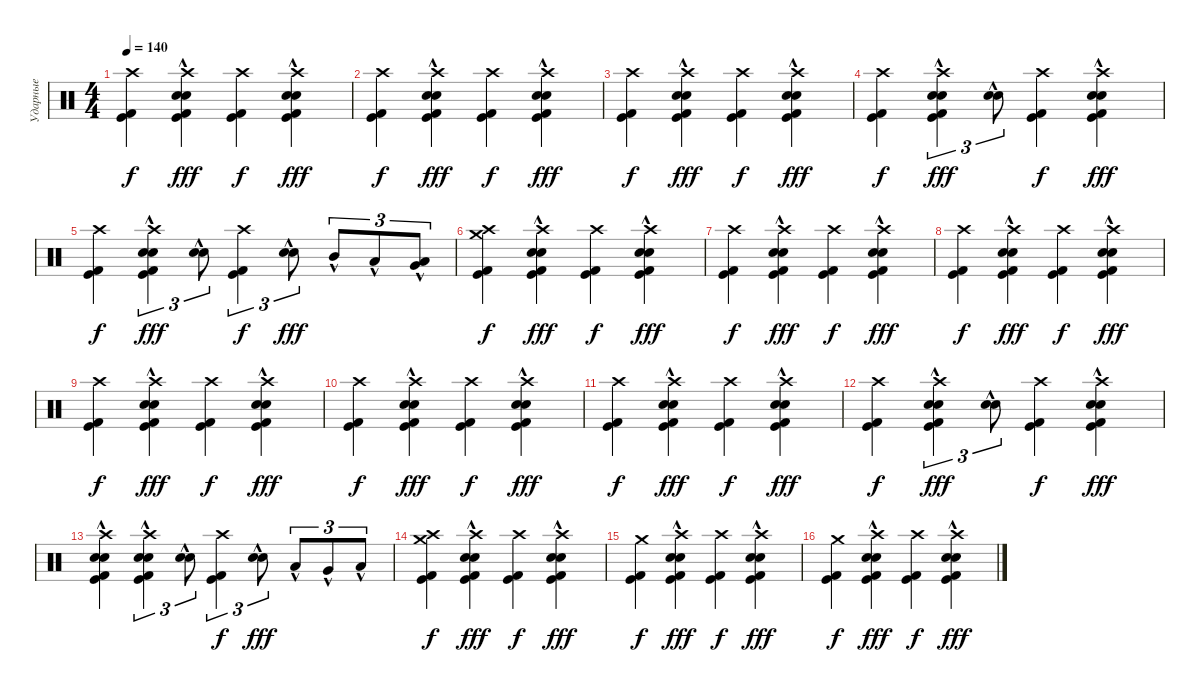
\track ("Ударные" "Ударные") {instrument percussion}
\staff {score}
\articulation defaults
\ts (4 4)
\tempo 140
\clef neutral
\ks c
("Crash high (hit)" "Kick (hit)" "Kick (hit) 2").4{dy f} ("Crash high (hit)" "Kick (hit)" "Kick (hit) 2" "Snare (hit) 2"{hac} "Electric Snare (hit)"{hac}).4{dy fff} ("Crash high (hit)" "Kick (hit)" "Kick (hit) 2").4{dy f} ("Crash high (hit)" "Kick (hit)" "Kick (hit) 2" "Snare (hit) 2"{hac} "Electric Snare (hit)"{hac}).4{dy fff} |
("Crash high (hit)" "Kick (hit)" "Kick (hit) 2").4{dy f} ("Crash high (hit)" "Kick (hit)" "Kick (hit) 2" "Snare (hit) 2"{hac} "Electric Snare (hit)"{hac}).4{dy fff} ("Crash high (hit)" "Kick (hit)" "Kick (hit) 2").4{dy f} ("Crash high (hit)" "Kick (hit)" "Kick (hit) 2" "Snare (hit) 2"{hac} "Electric Snare (hit)"{hac}).4{dy fff} |
("Crash high (hit)" "Kick (hit)" "Kick (hit) 2").4{dy f} ("Crash high (hit)" "Kick (hit)" "Kick (hit) 2" "Snare (hit) 2"{hac} "Electric Snare (hit)"{hac}).4{dy fff} ("Crash high (hit)" "Kick (hit)" "Kick (hit) 2").4{dy f} ("Crash high (hit)" "Kick (hit)" "Kick (hit) 2" "Snare (hit) 2"{hac} "Electric Snare (hit)"{hac}).4{dy fff} |
("Crash high (hit)" "Kick (hit)" "Kick (hit) 2").4{dy f} ("Crash high (hit)" "Kick (hit)" "Kick (hit) 2" "Snare (hit) 2"{hac} "Electric Snare (hit)"{hac}).4{tu (3 2) dy fff} ("Snare (hit) 2"{hac} "Electric Snare (hit)"{hac}).8{tu (3 2)} ("Crash high (hit)" "Kick (hit)" "Kick (hit) 2").4{dy f} ("Crash high (hit)" "Kick (hit)" "Kick (hit) 2" "Snare (hit) 2"{hac} "Electric Snare (hit)"{hac}).4{dy fff} |
("Crash high (hit)" "Kick (hit)" "Kick (hit) 2").4{dy f} ("Crash high (hit)" "Kick (hit)" "Kick (hit) 2" "Snare (hit) 2"{hac} "Electric Snare (hit)"{hac}).4{tu (3 2) dy fff} ("Snare (hit) 2"{hac} "Electric Snare (hit)"{hac}).8{tu (3 2)} ("Crash high (hit)" "Kick (hit)" "Kick (hit) 2").4{tu (3 2) dy f} ("Snare (hit) 2"{hac} "Electric Snare (hit)"{hac}).8{tu (3 2) dy fff} "Mid Tom (hit)"{hac}.8{tu (3 2)} "Low Tom (hit)"{hac}.8{tu (3 2)} ("Very Low Tom (hit)"{hac} "Low Floor Tom (hit)"{hac}).8{tu (3 2)} |
("Crash high (hit)" "Kick (hit)" "Kick (hit) 2" "Crash medium (hit)").4{dy f} ("Crash high (hit)" "Kick (hit)" "Kick (hit) 2" "Snare (hit) 2"{hac} "Electric Snare (hit)"{hac}).4{dy fff} ("Crash high (hit)" "Kick (hit)" "Kick (hit) 2").4{dy f} ("Crash high (hit)" "Kick (hit)" "Kick (hit) 2" "Snare (hit) 2"{hac} "Electric Snare (hit)"{hac}).4{dy fff} |
("Crash high (hit)" "Kick (hit)" "Kick (hit) 2").4{dy f} ("Crash high (hit)" "Kick (hit)" "Kick (hit) 2" "Snare (hit) 2"{hac} "Electric Snare (hit)"{hac}).4{dy fff} ("Crash high (hit)" "Kick (hit)" "Kick (hit) 2").4{dy f} ("Crash high (hit)" "Kick (hit)" "Kick (hit) 2" "Snare (hit) 2"{hac} "Electric Snare (hit)"{hac}).4{dy fff} |
("Crash high (hit)" "Kick (hit)" "Kick (hit) 2").4{dy f} ("Crash high (hit)" "Kick (hit)" "Kick (hit) 2" "Snare (hit) 2"{hac} "Electric Snare (hit)"{hac}).4{dy fff} ("Crash high (hit)" "Kick (hit)" "Kick (hit) 2").4{dy f} ("Crash high (hit)" "Kick (hit)" "Kick (hit) 2" "Snare (hit) 2"{hac} "Electric Snare (hit)"{hac}).4{dy fff} |
("Crash high (hit)" "Kick (hit)" "Kick (hit) 2").4{dy f} ("Crash high (hit)" "Kick (hit)" "Kick (hit) 2" "Snare (hit) 2"{hac} "Electric Snare (hit)"{hac}).4{dy fff} ("Crash high (hit)" "Kick (hit)" "Kick (hit) 2").4{dy f} ("Crash high (hit)" "Kick (hit)" "Kick (hit) 2" "Snare (hit) 2"{hac} "Electric Snare (hit)"{hac}).4{dy fff} |
("Crash high (hit)" "Kick (hit)" "Kick (hit) 2").4{dy f} ("Crash high (hit)" "Kick (hit)" "Kick (hit) 2" "Snare (hit) 2"{hac} "Electric Snare (hit)"{hac}).4{dy fff} ("Crash high (hit)" "Kick (hit)" "Kick (hit) 2").4{dy f} ("Crash high (hit)" "Kick (hit)" "Kick (hit) 2" "Snare (hit) 2"{hac} "Electric Snare (hit)"{hac}).4{dy fff} |
("Crash high (hit)" "Kick (hit)" "Kick (hit) 2").4{dy f} ("Crash high (hit)" "Kick (hit)" "Kick (hit) 2" "Snare (hit) 2"{hac} "Electric Snare (hit)"{hac}).4{dy fff} ("Crash high (hit)" "Kick (hit)" "Kick (hit) 2").4{dy f} ("Crash high (hit)" "Kick (hit)" "Kick (hit) 2" "Snare (hit) 2"{hac} "Electric Snare (hit)"{hac}).4{dy fff} |
("Crash high (hit)" "Kick (hit)" "Kick (hit) 2").4{dy f} ("Crash high (hit)" "Kick (hit)" "Kick (hit) 2" "Snare (hit) 2"{hac} "Electric Snare (hit)"{hac}).4{tu (3 2) dy fff} ("Snare (hit) 2"{hac} "Electric Snare (hit)"{hac}).8{tu (3 2)} ("Crash high (hit)" "Kick (hit)" "Kick (hit) 2").4{dy f} ("Crash high (hit)" "Kick (hit)" "Kick (hit) 2" "Snare (hit) 2"{hac} "Electric Snare (hit)"{hac}).4{dy fff} |
("Crash high (hit)" "Kick (hit)" "Kick (hit) 2" "Snare (hit) 2"{hac} "Electric Snare (hit)"{hac}).4 ("Crash high (hit)" "Kick (hit)" "Kick (hit) 2" "Snare (hit) 2"{hac} "Electric Snare (hit)"{hac}).4{tu (3 2)} ("Snare (hit) 2"{hac} "Electric Snare (hit)"{hac}).8{tu (3 2)} ("Crash high (hit)" "Kick (hit)" "Kick (hit) 2").4{tu (3 2) dy f} ("Snare (hit) 2"{hac} "Electric Snare (hit)"{hac}).8{tu (3 2) dy fff} "Low Tom (hit)"{hac}.8{tu (3 2)} "Very Low Tom (hit)"{hac}.8{tu (3 2)} "Low Floor Tom (hit)"{hac}.8{tu (3 2)} |
("Crash high (hit)" "Kick (hit)" "Kick (hit) 2" "Crash medium (hit)").4{dy f} ("Crash high (hit)" "Kick (hit)" "Kick (hit) 2" "Snare (hit) 2"{hac} "Electric Snare (hit)"{hac}).4{dy fff} ("Crash high (hit)" "Kick (hit)" "Kick (hit) 2").4{dy f} ("Crash high (hit)" "Kick (hit)" "Kick (hit) 2" "Snare (hit) 2"{hac} "Electric Snare (hit)"{hac}).4{dy fff} |
("Crash medium (hit)" "Kick (hit)" "Kick (hit) 2").4{dy f} ("Crash high (hit)" "Kick (hit)" "Kick (hit) 2" "Snare (hit) 2"{hac} "Electric Snare (hit)"{hac}).4{dy fff} ("Crash high (hit)" "Kick (hit)" "Kick (hit) 2").4{dy f} ("Crash high (hit)" "Kick (hit)" "Kick (hit) 2" "Snare (hit) 2"{hac} "Electric Snare (hit)"{hac}).4{dy fff} |
("Crash medium (hit)" "Kick (hit)" "Kick (hit) 2").4{dy f} ("Crash high (hit)" "Kick (hit)" "Kick (hit) 2" "Snare (hit) 2"{hac} "Electric Snare (hit)"{hac}).4{dy fff} ("Crash high (hit)" "Kick (hit)" "Kick (hit) 2").4{dy f} ("Crash high (hit)" "Kick (hit)" "Kick (hit) 2" "Snare (hit) 2"{hac} "Electric Snare (hit)"{hac}).4{dy fff}
